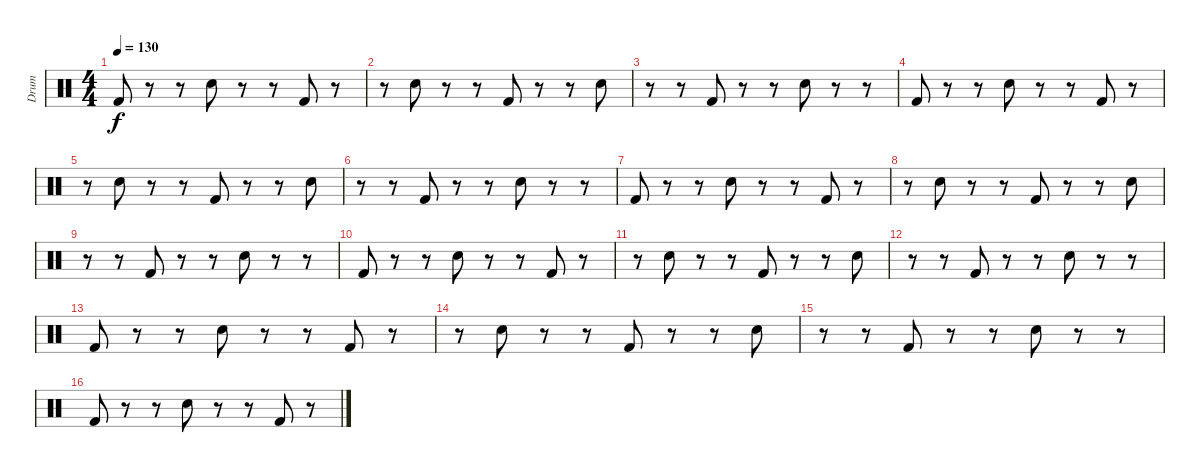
\track ("Drum" "Drum") {mute instrument percussion}
\staff {score}
\articulation defaults
\ts (4 4)
\tempo 130
\clef neutral
\ks c "Kick (hit) 2".8{dy f}
r.8 r.8 "Snare (hit) 2".8 r.8 r.8 "Kick (hit) 2".8 r.8 |
r.8 "Snare (hit) 2".8 r.8 r.8 "Kick (hit) 2".8 r.8 r.8 "Snare (hit) 2".8 |
r.8 r.8 "Kick (hit) 2".8 r.8 r.8 "Snare (hit) 2".8 r.8 r.8 |
"Kick (hit) 2".8 r.8 r.8 "Snare (hit) 2".8 r.8 r.8 "Kick (hit) 2".8 r.8 |
r.8 "Snare (hit) 2".8 r.8 r.8 "Kick (hit) 2".8 r.8 r.8 "Snare (hit) 2".8 |
r.8 r.8 "Kick (hit) 2".8 r.8 r.8 "Snare (hit) 2".8 r.8 r.8 |
"Kick (hit) 2".8 r.8 r.8 "Snare (hit) 2".8 r.8 r.8 "Kick (hit) 2".8 r.8 |
r.8 "Snare (hit) 2".8 r.8 r.8 "Kick (hit) 2".8 r.8 r.8 "Snare (hit) 2".8 |
r.8 r.8 "Kick (hit) 2".8 r.8 r.8 "Snare (hit) 2".8 r.8 r.8 |
"Kick (hit) 2".8 r.8 r.8 "Snare (hit) 2".8 r.8 r.8 "Kick (hit) 2".8 r.8 |
r.8 "Snare (hit) 2".8 r.8 r.8 "Kick (hit) 2".8 r.8 r.8 "Snare (hit) 2".8 |
r.8 r.8 "Kick (hit) 2".8 r.8 r.8 "Snare (hit) 2".8 r.8 r.8 |
"Kick (hit) 2".8 r.8 r.8 "Snare (hit) 2".8 r.8 r.8 "Kick (hit) 2".8 r.8 |
r.8 "Snare (hit) 2".8 r.8 r.8 "Kick (hit) 2".8 r.8 r.8 "Snare (hit) 2".8 |
r.8 r.8 "Kick (hit) 2".8 r.8 r.8 "Snare (hit) 2".8 r.8 r.8 |
"Kick (hit) 2".8 r.8 r.8 "Snare (hit) 2".8 r.8 r.8 "Kick (hit) 2".8 r.8
